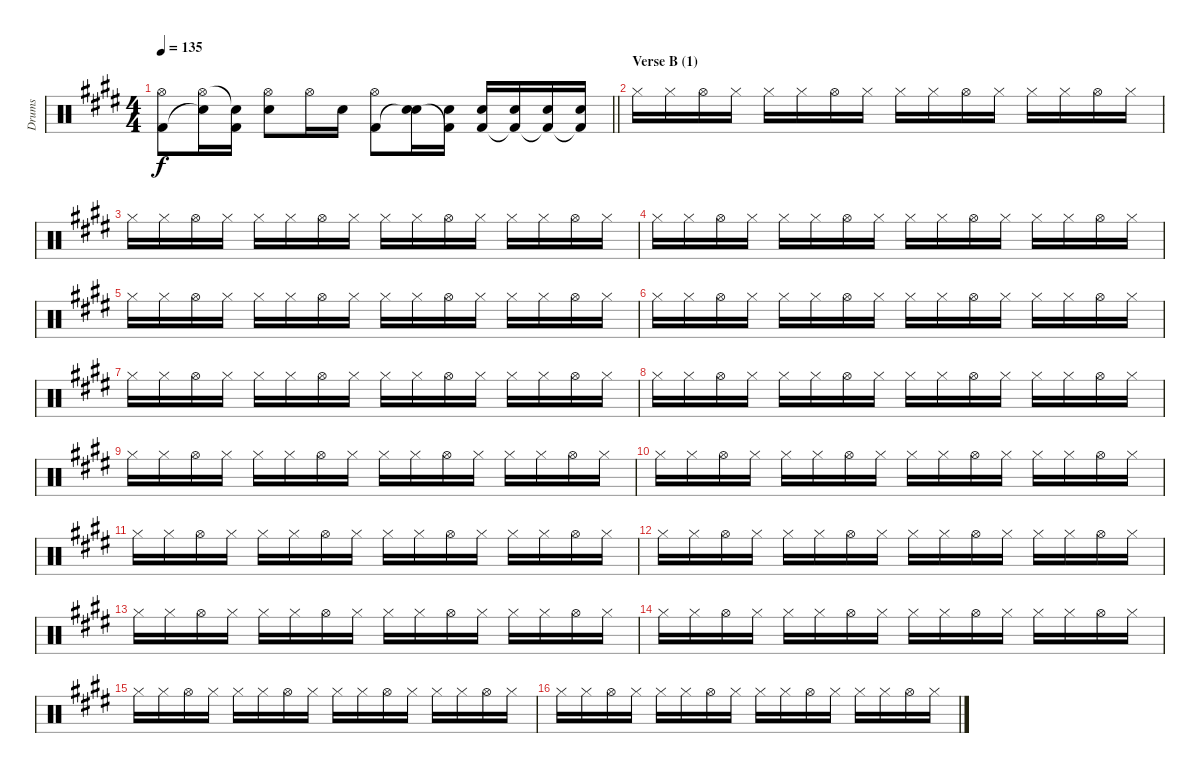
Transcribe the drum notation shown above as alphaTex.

\track ("Drums" "Drums") {instrument percussion}
\staff {score}
\articulation defaults
\ts (4 4)
\tempo 135
\clef neutral
\barLineRight lightlight
\ks c#minor
("Hi-Hat (open)" "Kick (hit) 2").8{dy f} ("Hi-Hat (open)" "Snare (hit)"{t}).16 ("Snare (hit)"{t} "Kick (hit) 2").16 ("Hi-Hat (open)" "Electric Snare (hit)").8 "Hi-Hat (open)".16 "Electric Snare (hit)".16 ("Hi-Hat (open)" "Kick (hit) 2").8 ("Electric Snare (hit)" "Snare (hit)"{t}).16 ("Electric Snare (hit)" "Kick (hit) 2"{t}).16 ("Electric Snare (hit)" "Kick (hit) 2").16 ("Electric Snare (hit)" "Kick (hit) 2"{t}).16 ("Electric Snare (hit)" "Kick (hit) 2"{t}).16 ("Electric Snare (hit)" "Kick (hit) 2"{t}).16 |
\section ("" "Verse B (1)")
"Hi-Hat (closed)".16 "Hi-Hat (closed)".16 "Hi-Hat (open)".16 "Hi-Hat (closed)".16 "Hi-Hat (closed)".16 "Hi-Hat (closed)".16 "Hi-Hat (open)".16 "Hi-Hat (closed)".16 "Hi-Hat (closed)".16 "Hi-Hat (closed)".16 "Hi-Hat (open)".16 "Hi-Hat (closed)".16 "Hi-Hat (closed)".16 "Hi-Hat (closed)".16 "Hi-Hat (open)".16 "Hi-Hat (closed)".16 |
"Hi-Hat (closed)".16 "Hi-Hat (closed)".16 "Hi-Hat (open)".16 "Hi-Hat (closed)".16 "Hi-Hat (closed)".16 "Hi-Hat (closed)".16 "Hi-Hat (open)".16 "Hi-Hat (closed)".16 "Hi-Hat (closed)".16 "Hi-Hat (closed)".16 "Hi-Hat (open)".16 "Hi-Hat (closed)".16 "Hi-Hat (closed)".16 "Hi-Hat (closed)".16 "Hi-Hat (open)".16 "Hi-Hat (closed)".16 |
"Hi-Hat (closed)".16 "Hi-Hat (closed)".16 "Hi-Hat (open)".16 "Hi-Hat (closed)".16 "Hi-Hat (closed)".16 "Hi-Hat (closed)".16 "Hi-Hat (open)".16 "Hi-Hat (closed)".16 "Hi-Hat (closed)".16 "Hi-Hat (closed)".16 "Hi-Hat (open)".16 "Hi-Hat (closed)".16 "Hi-Hat (closed)".16 "Hi-Hat (closed)".16 "Hi-Hat (open)".16 "Hi-Hat (closed)".16 |
"Hi-Hat (closed)".16 "Hi-Hat (closed)".16 "Hi-Hat (open)".16 "Hi-Hat (closed)".16 "Hi-Hat (closed)".16 "Hi-Hat (closed)".16 "Hi-Hat (open)".16 "Hi-Hat (closed)".16 "Hi-Hat (closed)".16 "Hi-Hat (closed)".16 "Hi-Hat (open)".16 "Hi-Hat (closed)".16 "Hi-Hat (closed)".16 "Hi-Hat (closed)".16 "Hi-Hat (open)".16 "Hi-Hat (closed)".16 |
"Hi-Hat (closed)".16 "Hi-Hat (closed)".16 "Hi-Hat (open)".16 "Hi-Hat (closed)".16 "Hi-Hat (closed)".16 "Hi-Hat (closed)".16 "Hi-Hat (open)".16 "Hi-Hat (closed)".16 "Hi-Hat (closed)".16 "Hi-Hat (closed)".16 "Hi-Hat (open)".16 "Hi-Hat (closed)".16 "Hi-Hat (closed)".16 "Hi-Hat (closed)".16 "Hi-Hat (open)".16 "Hi-Hat (closed)".16 |
"Hi-Hat (closed)".16 "Hi-Hat (closed)".16 "Hi-Hat (open)".16 "Hi-Hat (closed)".16 "Hi-Hat (closed)".16 "Hi-Hat (closed)".16 "Hi-Hat (open)".16 "Hi-Hat (closed)".16 "Hi-Hat (closed)".16 "Hi-Hat (closed)".16 "Hi-Hat (open)".16 "Hi-Hat (closed)".16 "Hi-Hat (closed)".16 "Hi-Hat (closed)".16 "Hi-Hat (open)".16 "Hi-Hat (closed)".16 |
"Hi-Hat (closed)".16 "Hi-Hat (closed)".16 "Hi-Hat (open)".16 "Hi-Hat (closed)".16 "Hi-Hat (closed)".16 "Hi-Hat (closed)".16 "Hi-Hat (open)".16 "Hi-Hat (closed)".16 "Hi-Hat (closed)".16 "Hi-Hat (closed)".16 "Hi-Hat (open)".16 "Hi-Hat (closed)".16 "Hi-Hat (closed)".16 "Hi-Hat (closed)".16 "Hi-Hat (open)".16 "Hi-Hat (closed)".16 |
"Hi-Hat (closed)".16 "Hi-Hat (closed)".16 "Hi-Hat (open)".16 "Hi-Hat (closed)".16 "Hi-Hat (closed)".16 "Hi-Hat (closed)".16 "Hi-Hat (open)".16 "Hi-Hat (closed)".16 "Hi-Hat (closed)".16 "Hi-Hat (closed)".16 "Hi-Hat (open)".16 "Hi-Hat (closed)".16 "Hi-Hat (closed)".16 "Hi-Hat (closed)".16 "Hi-Hat (open)".16 "Hi-Hat (closed)".16 |
"Hi-Hat (closed)".16 "Hi-Hat (closed)".16 "Hi-Hat (open)".16 "Hi-Hat (closed)".16 "Hi-Hat (closed)".16 "Hi-Hat (closed)".16 "Hi-Hat (open)".16 "Hi-Hat (closed)".16 "Hi-Hat (closed)".16 "Hi-Hat (closed)".16 "Hi-Hat (open)".16 "Hi-Hat (closed)".16 "Hi-Hat (closed)".16 "Hi-Hat (closed)".16 "Hi-Hat (open)".16 "Hi-Hat (closed)".16 |
"Hi-Hat (closed)".16 "Hi-Hat (closed)".16 "Hi-Hat (open)".16 "Hi-Hat (closed)".16 "Hi-Hat (closed)".16 "Hi-Hat (closed)".16 "Hi-Hat (open)".16 "Hi-Hat (closed)".16 "Hi-Hat (closed)".16 "Hi-Hat (closed)".16 "Hi-Hat (open)".16 "Hi-Hat (closed)".16 "Hi-Hat (closed)".16 "Hi-Hat (closed)".16 "Hi-Hat (open)".16 "Hi-Hat (closed)".16 |
"Hi-Hat (closed)".16 "Hi-Hat (closed)".16 "Hi-Hat (open)".16 "Hi-Hat (closed)".16 "Hi-Hat (closed)".16 "Hi-Hat (closed)".16 "Hi-Hat (open)".16 "Hi-Hat (closed)".16 "Hi-Hat (closed)".16 "Hi-Hat (closed)".16 "Hi-Hat (open)".16 "Hi-Hat (closed)".16 "Hi-Hat (closed)".16 "Hi-Hat (closed)".16 "Hi-Hat (open)".16 "Hi-Hat (closed)".16 |
"Hi-Hat (closed)".16 "Hi-Hat (closed)".16 "Hi-Hat (open)".16 "Hi-Hat (closed)".16 "Hi-Hat (closed)".16 "Hi-Hat (closed)".16 "Hi-Hat (open)".16 "Hi-Hat (closed)".16 "Hi-Hat (closed)".16 "Hi-Hat (closed)".16 "Hi-Hat (open)".16 "Hi-Hat (closed)".16 "Hi-Hat (closed)".16 "Hi-Hat (closed)".16 "Hi-Hat (open)".16 "Hi-Hat (closed)".16 |
"Hi-Hat (closed)".16 "Hi-Hat (closed)".16 "Hi-Hat (open)".16 "Hi-Hat (closed)".16 "Hi-Hat (closed)".16 "Hi-Hat (closed)".16 "Hi-Hat (open)".16 "Hi-Hat (closed)".16 "Hi-Hat (closed)".16 "Hi-Hat (closed)".16 "Hi-Hat (open)".16 "Hi-Hat (closed)".16 "Hi-Hat (closed)".16 "Hi-Hat (closed)".16 "Hi-Hat (open)".16 "Hi-Hat (closed)".16 |
"Hi-Hat (closed)".16 "Hi-Hat (closed)".16 "Hi-Hat (open)".16 "Hi-Hat (closed)".16 "Hi-Hat (closed)".16 "Hi-Hat (closed)".16 "Hi-Hat (open)".16 "Hi-Hat (closed)".16 "Hi-Hat (closed)".16 "Hi-Hat (closed)".16 "Hi-Hat (open)".16 "Hi-Hat (closed)".16 "Hi-Hat (closed)".16 "Hi-Hat (closed)".16 "Hi-Hat (open)".16 "Hi-Hat (closed)".16 |
"Hi-Hat (closed)".16 "Hi-Hat (closed)".16 "Hi-Hat (open)".16 "Hi-Hat (closed)".16 "Hi-Hat (closed)".16 "Hi-Hat (closed)".16 "Hi-Hat (open)".16 "Hi-Hat (closed)".16 "Hi-Hat (closed)".16 "Hi-Hat (closed)".16 "Hi-Hat (open)".16 "Hi-Hat (closed)".16 "Hi-Hat (closed)".16 "Hi-Hat (closed)".16 "Hi-Hat (open)".16 "Hi-Hat (closed)".16
